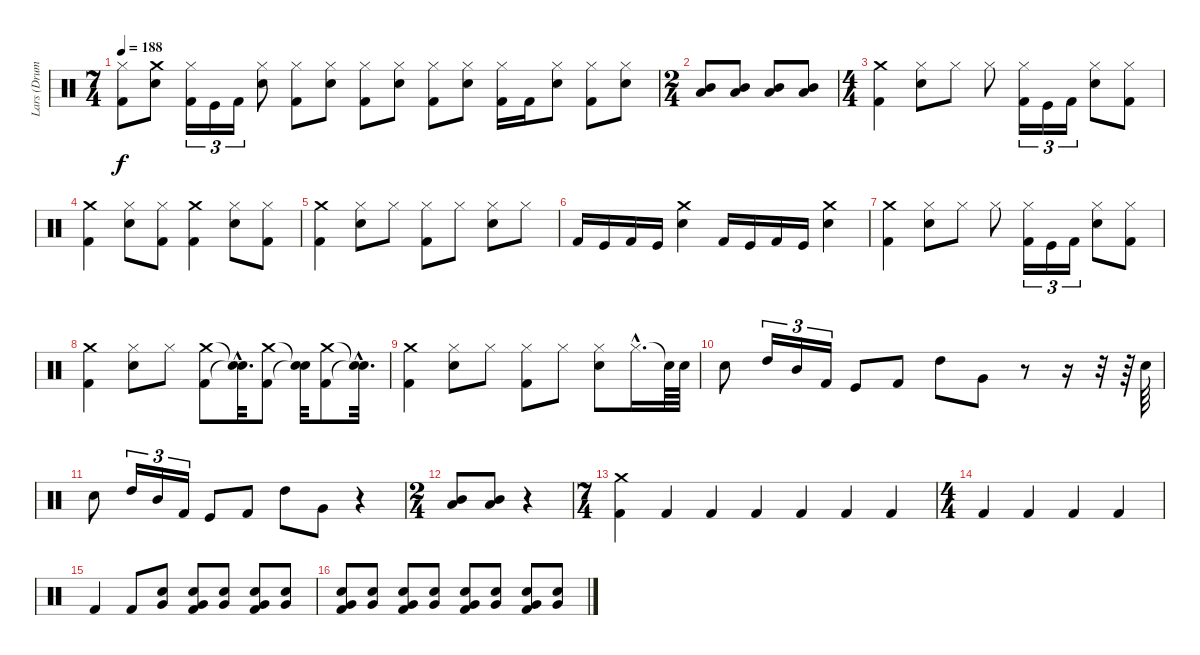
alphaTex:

\track ("Lars (Drums)" "Lars (Drum") {instrument percussion}
\staff {score}
\articulation defaults
\ts (7 4)
\tempo 188
\clef neutral
\ks c
("Kick (hit) 2" "Hi-Hat (closed)").8{dy f} ("Crash medium (hit)" "Snare (hit) 2").8 ("Kick (hit) 2" "Hi-Hat (closed)").16{tu (3 2)} "Kick (hit)".16{tu (3 2)} "Kick (hit) 2".16{tu (3 2)} ("Snare (hit) 2" "Hi-Hat (closed)").8 ("Hi-Hat (closed)" "Kick (hit) 2").8 ("Hi-Hat (closed)" "Snare (hit) 2").8 ("Hi-Hat (closed)" "Kick (hit) 2").8 ("Snare (hit) 2" "Hi-Hat (closed)").8 ("Hi-Hat (closed)" "Kick (hit) 2").8 ("Snare (hit) 2" "Hi-Hat (closed)").8 ("Hi-Hat (closed)" "Kick (hit) 2").16 "Kick (hit) 2".16 ("Snare (hit) 2" "Hi-Hat (closed)").8 ("Hi-Hat (closed)" "Kick (hit) 2").8 ("Snare (hit) 2" "Hi-Hat (closed)").8 |
\ts (2 4)
("Mid Tom (hit)" "Low Tom (hit)").8 ("Mid Tom (hit)" "Low Tom (hit)").8 ("Mid Tom (hit)" "Low Tom (hit)").8 ("Mid Tom (hit)" "Low Tom (hit)").8 |
\ts (4 4)
("Kick (hit) 2" "Crash medium (hit)").4 ("Snare (hit) 2" "Hi-Hat (closed)").8 "Hi-Hat (closed)".8 "Hi-Hat (closed)".8 ("Kick (hit) 2" "Hi-Hat (closed)").16{tu (3 2)} "Kick (hit)".16{tu (3 2)} "Kick (hit) 2".16{tu (3 2)} ("Snare (hit) 2" "Hi-Hat (closed)").8 ("Kick (hit) 2" "Hi-Hat (closed)").8 |
("Kick (hit) 2" "Crash medium (hit)").4 ("Hi-Hat (closed)" "Snare (hit) 2").8 ("Kick (hit) 2" "Hi-Hat (closed)").8 ("Crash medium (hit)" "Kick (hit) 2").4 ("Hi-Hat (closed)" "Snare (hit) 2").8 ("Kick (hit) 2" "Hi-Hat (closed)").8 |
("Kick (hit) 2" "Crash medium (hit)").4 ("Hi-Hat (closed)" "Snare (hit) 2").8 "Hi-Hat (closed)".8 ("Hi-Hat (closed)" "Kick (hit) 2").8 "Hi-Hat (closed)".8 ("Snare (hit) 2" "Hi-Hat (closed)").8 "Hi-Hat (closed)".8 |
"Kick (hit) 2".16 "Kick (hit)".16 "Kick (hit) 2".16 "Kick (hit)".16 ("Crash medium (hit)" "Snare (hit) 2").4 "Kick (hit) 2".16 "Kick (hit)".16 "Kick (hit) 2".16 "Kick (hit)".16 ("Snare (hit) 2" "Crash medium (hit)").4 |
("Kick (hit) 2" "Crash medium (hit)").4 ("Snare (hit) 2" "Hi-Hat (closed)").8 "Hi-Hat (closed)".8 "Hi-Hat (closed)".8 ("Kick (hit) 2" "Hi-Hat (closed)").16{tu (3 2)} "Kick (hit)".16{tu (3 2)} "Kick (hit) 2".16{tu (3 2)} ("Snare (hit) 2" "Hi-Hat (closed)").8 ("Kick (hit) 2" "Hi-Hat (closed)").8 |
("Kick (hit) 2" "Crash medium (hit)").4 ("Hi-Hat (closed)" "Snare (hit) 2").8 "Hi-Hat (closed)".8 ("Kick (hit) 2" "Crash medium (hit)").8 ("Snare (hit)"{hac t} "Snare (hit)"{hac t}).32{d} ("Kick (hit) 2" "Crash medium (hit)").8 ("Snare (hit)"{t} "Snare (hit)"{t}).32 ("Kick (hit) 2" "Crash medium (hit)").8 ("Snare (hit)"{hac t} "Snare (hit)"{hac t}).32{d} |
("Kick (hit) 2" "Crash medium (hit)").4 ("Hi-Hat (closed)" "Snare (hit) 2").8 "Hi-Hat (closed)".8 ("Hi-Hat (closed)" "Kick (hit) 2").8 "Hi-Hat (closed)".8 ("Snare (hit) 2" "Hi-Hat (closed)").8 "Hi-Hat (closed)"{hac}.16{d} "Snare (hit)"{t}.64 "Snare (hit) 2".64 |
"Snare (hit) 2".8 "High Tom (hit)".16{tu (3 2)} "Mid Tom (hit)".16{tu (3 2)} "Kick (hit) 2".16{tu (3 2)} "Kick (hit)".8 "Kick (hit) 2".8 "High Tom (hit)".8 "Very Low Tom (hit)".8 r.8 r.16 r.32 r.64 "Snare (hit) 2".64 |
"Snare (hit) 2".8 "High Tom (hit)".16{tu (3 2)} "Mid Tom (hit)".16{tu (3 2)} "Kick (hit) 2".16{tu (3 2)} "Kick (hit)".8 "Kick (hit) 2".8 "High Tom (hit)".8 "Very Low Tom (hit)".8 r.4 |
\ts (2 4)
("Mid Tom (hit)" "Low Tom (hit)").8 ("Mid Tom (hit)" "Low Tom (hit)").8 r.4 |
\ts (7 4)
("Kick (hit) 2" "Crash medium (hit)").4 "Kick (hit) 2".4 "Kick (hit) 2".4 "Kick (hit) 2".4 "Kick (hit) 2".4 "Kick (hit) 2".4 "Kick (hit) 2".4 |
\ts (4 4)
"Kick (hit) 2".4 "Kick (hit) 2".4 "Kick (hit) 2".4 "Kick (hit) 2".4 |
"Kick (hit) 2".4 "Kick (hit) 2".8 ("Very Low Tom (hit)" "Snare (hit) 2").8 ("Snare (hit) 2" "Very Low Tom (hit)" "Kick (hit) 2").8 ("Snare (hit) 2" "Very Low Tom (hit)").8 ("Snare (hit) 2" "Very Low Tom (hit)" "Kick (hit) 2").8 ("Snare (hit) 2" "Very Low Tom (hit)").8 |
("Snare (hit) 2" "Very Low Tom (hit)" "Kick (hit) 2").8 ("Snare (hit) 2" "Very Low Tom (hit)").8 ("Snare (hit) 2" "Very Low Tom (hit)" "Kick (hit) 2").8 ("Snare (hit) 2" "Very Low Tom (hit)").8 ("Snare (hit) 2" "Very Low Tom (hit)" "Kick (hit) 2").8 ("Snare (hit) 2" "Very Low Tom (hit)").8 ("Snare (hit) 2" "Very Low Tom (hit)" "Kick (hit) 2").8 ("Snare (hit) 2" "Very Low Tom (hit)").8
